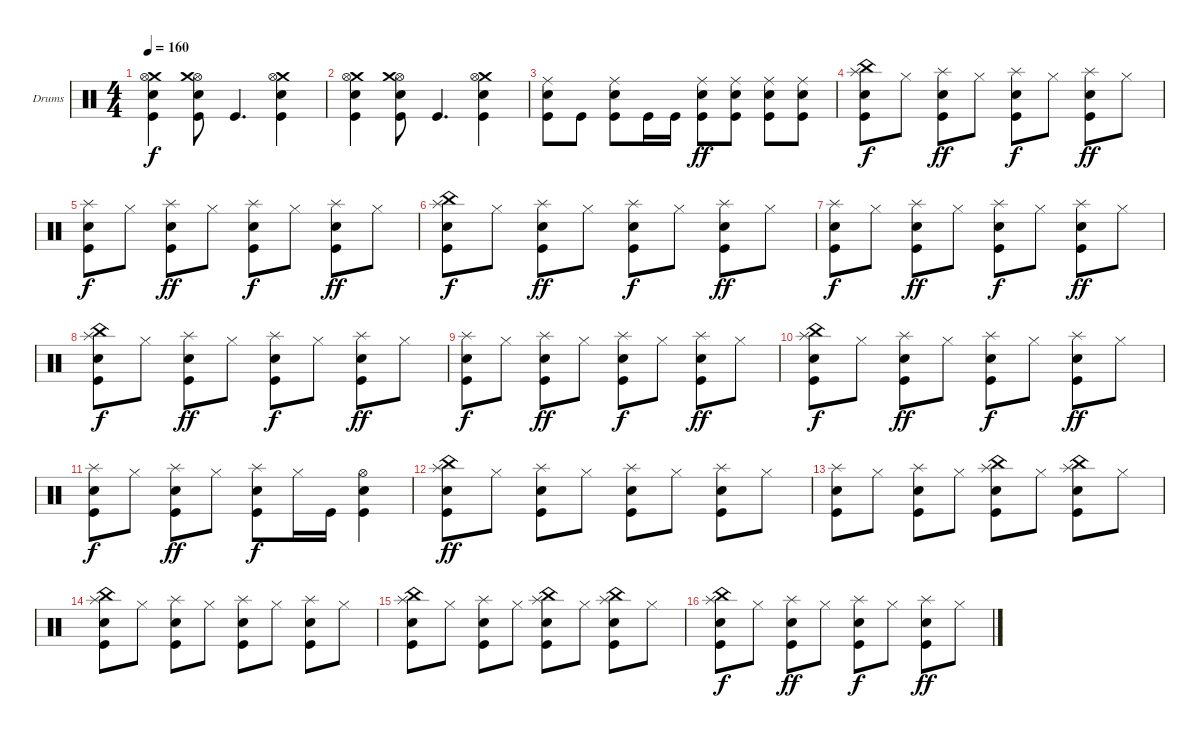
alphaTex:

\bracketExtendMode groupsimilarinstruments
\firstSystemTrackNameOrientation horizontal
\otherSystemsTrackNameOrientation horizontal
\track ("Drumkit" "Drums") {instrument percussion}
\staff {score}
\articulation defaults
\ts (4 4)
\tempo 160
\clef neutral
\ks c
("Crash medium (hit)" "Hi-Hat (open)" "Kick (hit)" "Snare (hit) 2").4{dy f} ("Kick (hit)" "Hi-Hat (open)" "Crash medium (hit)" "Snare (hit) 2").8 "Kick (hit)".4{d} ("Crash medium (hit)" "Hi-Hat (open)" "Kick (hit)" "Snare (hit) 2").4 |
("Crash medium (hit)" "Hi-Hat (open)" "Kick (hit)" "Snare (hit) 2").4 ("Kick (hit)" "Hi-Hat (open)" "Crash medium (hit)" "Snare (hit) 2").8 "Kick (hit)".4{d} ("Crash medium (hit)" "Hi-Hat (open)" "Kick (hit)" "Snare (hit) 2").4 |
("Kick (hit)" "Snare (hit) 2" "Ride (middle)").8 "Kick (hit)".8 ("Kick (hit)" "Snare (hit) 2" "Ride (middle)").8 "Kick (hit)".16 "Kick (hit)".16 ("Kick (hit)" "Snare (hit) 2" "Ride (middle)").8{dy ff} ("Kick (hit)" "Snare (hit) 2" "Ride (middle)").8 ("Kick (hit)" "Snare (hit) 2" "Ride (middle)").8 ("Kick (hit)" "Snare (hit) 2" "Ride (middle)").8 |
("Kick (hit)" "Snare (hit) 2" "Splash (hit)" "China (hit)").8{dy f} "Hi-Hat (closed)".8 ("Kick (hit)" "Snare (hit) 2" "Splash (hit)").8{dy ff} "Hi-Hat (closed)".8 ("Kick (hit)" "Snare (hit) 2" "Splash (hit)").8{dy f} "Hi-Hat (closed)".8 ("Kick (hit)" "Snare (hit) 2" "Splash (hit)").8{dy ff} "Hi-Hat (closed)".8 |
("Kick (hit)" "Snare (hit) 2" "Splash (hit)").8{dy f} "Hi-Hat (closed)".8 ("Kick (hit)" "Snare (hit) 2" "Splash (hit)").8{dy ff} "Hi-Hat (closed)".8 ("Kick (hit)" "Snare (hit) 2" "Splash (hit)").8{dy f} "Hi-Hat (closed)".8 ("Kick (hit)" "Snare (hit) 2" "Splash (hit)").8{dy ff} "Hi-Hat (closed)".8 |
("Kick (hit)" "Snare (hit) 2" "Splash (hit)" "China (hit)").8{dy f} "Hi-Hat (closed)".8 ("Kick (hit)" "Snare (hit) 2" "Splash (hit)").8{dy ff} "Hi-Hat (closed)".8 ("Kick (hit)" "Snare (hit) 2" "Splash (hit)").8{dy f} "Hi-Hat (closed)".8 ("Kick (hit)" "Snare (hit) 2" "Splash (hit)").8{dy ff} "Hi-Hat (closed)".8 |
("Kick (hit)" "Snare (hit) 2" "Splash (hit)").8{dy f} "Hi-Hat (closed)".8 ("Kick (hit)" "Snare (hit) 2" "Splash (hit)").8{dy ff} "Hi-Hat (closed)".8 ("Kick (hit)" "Snare (hit) 2" "Splash (hit)").8{dy f} "Hi-Hat (closed)".8 ("Kick (hit)" "Snare (hit) 2" "Splash (hit)").8{dy ff} "Hi-Hat (closed)".8 |
("Kick (hit)" "Snare (hit) 2" "Splash (hit)" "China (hit)").8{dy f} "Hi-Hat (closed)".8 ("Kick (hit)" "Snare (hit) 2" "Splash (hit)").8{dy ff} "Hi-Hat (closed)".8 ("Kick (hit)" "Snare (hit) 2" "Splash (hit)").8{dy f} "Hi-Hat (closed)".8 ("Kick (hit)" "Snare (hit) 2" "Splash (hit)").8{dy ff} "Hi-Hat (closed)".8 |
("Kick (hit)" "Snare (hit) 2" "Splash (hit)").8{dy f} "Hi-Hat (closed)".8 ("Kick (hit)" "Snare (hit) 2" "Splash (hit)").8{dy ff} "Hi-Hat (closed)".8 ("Kick (hit)" "Snare (hit) 2" "Splash (hit)").8{dy f} "Hi-Hat (closed)".8 ("Kick (hit)" "Snare (hit) 2" "Splash (hit)").8{dy ff} "Hi-Hat (closed)".8 |
("Kick (hit)" "Snare (hit) 2" "Splash (hit)" "China (hit)").8{dy f} "Hi-Hat (closed)".8 ("Kick (hit)" "Snare (hit) 2" "Splash (hit)").8{dy ff} "Hi-Hat (closed)".8 ("Kick (hit)" "Snare (hit) 2" "Splash (hit)").8{dy f} "Hi-Hat (closed)".8 ("Kick (hit)" "Snare (hit) 2" "Splash (hit)").8{dy ff} "Hi-Hat (closed)".8 |
("Kick (hit)" "Snare (hit) 2" "Splash (hit)").8{dy f} "Hi-Hat (closed)".8 ("Kick (hit)" "Snare (hit) 2" "Splash (hit)").8{dy ff} "Hi-Hat (closed)".8 ("Kick (hit)" "Snare (hit) 2" "Splash (hit)").8{dy f} "Hi-Hat (closed)".16 "Kick (hit)".16 ("Kick (hit)" "Snare (hit) 2" "Hi-Hat (open)").4 |
("Kick (hit)" "Snare (hit) 2" "China (hit)" "Splash (hit)").8{dy ff} "Hi-Hat (closed)".8 ("Kick (hit)" "Snare (hit) 2" "Splash (hit)").8 "Hi-Hat (closed)".8 ("Kick (hit)" "Snare (hit) 2" "Splash (hit)").8 "Hi-Hat (closed)".8 ("Kick (hit)" "Snare (hit) 2" "Splash (hit)").8 "Hi-Hat (closed)".8 |
("Kick (hit)" "Snare (hit) 2" "Splash (hit)").8 "Hi-Hat (closed)".8 ("Kick (hit)" "Snare (hit) 2" "Splash (hit)").8 "Hi-Hat (closed)".8 ("Kick (hit)" "Snare (hit) 2" "Splash (hit)" "China (hit)").8 "Hi-Hat (closed)".8 ("Kick (hit)" "Snare (hit) 2" "Splash (hit)" "China (hit)").8 "Hi-Hat (closed)".8 |
("Kick (hit)" "Snare (hit) 2" "Splash (hit)" "China (hit)").8 "Hi-Hat (closed)".8 ("Kick (hit)" "Snare (hit) 2" "Splash (hit)").8 "Hi-Hat (closed)".8 ("Kick (hit)" "Snare (hit) 2" "Splash (hit)").8 "Hi-Hat (closed)".8 ("Kick (hit)" "Snare (hit) 2" "Splash (hit)").8 "Hi-Hat (closed)".8 |
("Kick (hit)" "Snare (hit) 2" "Splash (hit)" "China (hit)").8 "Hi-Hat (closed)".8 ("Kick (hit)" "Snare (hit) 2" "Splash (hit)").8 "Hi-Hat (closed)".8 ("Kick (hit)" "Snare (hit) 2" "Splash (hit)" "China (hit)").8 "Hi-Hat (closed)".8 ("Kick (hit)" "Snare (hit) 2" "Splash (hit)" "China (hit)").8 "Hi-Hat (closed)".8 |
("Kick (hit)" "Snare (hit) 2" "Splash (hit)" "China (hit)").8{dy f} "Hi-Hat (closed)".8 ("Kick (hit)" "Snare (hit) 2" "Splash (hit)").8{dy ff} "Hi-Hat (closed)".8 ("Kick (hit)" "Snare (hit) 2" "Splash (hit)").8{dy f} "Hi-Hat (closed)".8 ("Kick (hit)" "Snare (hit) 2" "Splash (hit)").8{dy ff} "Hi-Hat (closed)".8
